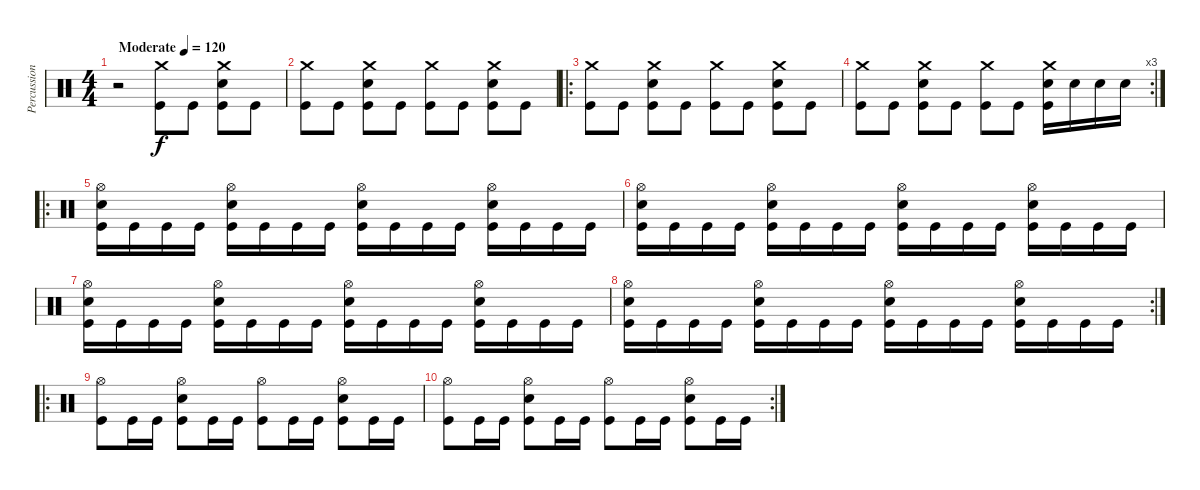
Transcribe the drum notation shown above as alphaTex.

\track ("Percussion" "Percussion") {instrument percussion}
\staff {score}
\articulation defaults
\ts (4 4)
\tempo (120 "Moderate")
\clef neutral
\ks c
r.2{dy f} ("Crash medium (hit)" "Kick (hit)").8 "Kick (hit)".8 ("Crash medium (hit)" "Snare (hit) 2" "Kick (hit)").8 "Kick (hit)".8 |
("Crash medium (hit)" "Kick (hit)").8 "Kick (hit)".8 ("Crash medium (hit)" "Snare (hit) 2" "Kick (hit)").8 "Kick (hit)".8 ("Crash medium (hit)" "Kick (hit)").8 "Kick (hit)".8 ("Crash medium (hit)" "Snare (hit) 2" "Kick (hit)").8 "Kick (hit)".8 |
\ro
("Crash medium (hit)" "Kick (hit)").8 "Kick (hit)".8 ("Crash medium (hit)" "Snare (hit) 2" "Kick (hit)").8 "Kick (hit)".8 ("Crash medium (hit)" "Kick (hit)").8 "Kick (hit)".8 ("Crash medium (hit)" "Snare (hit) 2" "Kick (hit)").8 "Kick (hit)".8 |
\rc 3
("Crash medium (hit)" "Kick (hit)").8 "Kick (hit)".8 ("Crash medium (hit)" "Snare (hit) 2" "Kick (hit)").8 "Kick (hit)".8 ("Crash medium (hit)" "Kick (hit)").8 "Kick (hit)".8 ("Crash medium (hit)" "Snare (hit) 2" "Kick (hit)").16 "Snare (hit) 2".16 "Snare (hit) 2".16 "Snare (hit) 2".16 |
\ro
("Hi-Hat (open)" "Snare (hit) 2" "Kick (hit)").16 "Kick (hit)".16 "Kick (hit)".16 "Kick (hit)".16 ("Hi-Hat (open)" "Snare (hit) 2" "Kick (hit)").16 "Kick (hit)".16 "Kick (hit)".16 "Kick (hit)".16 ("Hi-Hat (open)" "Snare (hit) 2" "Kick (hit)").16 "Kick (hit)".16 "Kick (hit)".16 "Kick (hit)".16 ("Hi-Hat (open)" "Snare (hit) 2" "Kick (hit)").16 "Kick (hit)".16 "Kick (hit)".16 "Kick (hit)".16 |
("Hi-Hat (open)" "Snare (hit) 2" "Kick (hit)").16 "Kick (hit)".16 "Kick (hit)".16 "Kick (hit)".16 ("Hi-Hat (open)" "Snare (hit) 2" "Kick (hit)").16 "Kick (hit)".16 "Kick (hit)".16 "Kick (hit)".16 ("Hi-Hat (open)" "Snare (hit) 2" "Kick (hit)").16 "Kick (hit)".16 "Kick (hit)".16 "Kick (hit)".16 ("Hi-Hat (open)" "Snare (hit) 2" "Kick (hit)").16 "Kick (hit)".16 "Kick (hit)".16 "Kick (hit)".16 |
("Hi-Hat (open)" "Snare (hit) 2" "Kick (hit)").16 "Kick (hit)".16 "Kick (hit)".16 "Kick (hit)".16 ("Hi-Hat (open)" "Snare (hit) 2" "Kick (hit)").16 "Kick (hit)".16 "Kick (hit)".16 "Kick (hit)".16 ("Hi-Hat (open)" "Snare (hit) 2" "Kick (hit)").16 "Kick (hit)".16 "Kick (hit)".16 "Kick (hit)".16 ("Hi-Hat (open)" "Snare (hit) 2" "Kick (hit)").16 "Kick (hit)".16 "Kick (hit)".16 "Kick (hit)".16 |
\rc 2
("Hi-Hat (open)" "Snare (hit) 2" "Kick (hit)").16 "Kick (hit)".16 "Kick (hit)".16 "Kick (hit)".16 ("Hi-Hat (open)" "Snare (hit) 2" "Kick (hit)").16 "Kick (hit)".16 "Kick (hit)".16 "Kick (hit)".16 ("Hi-Hat (open)" "Snare (hit) 2" "Kick (hit)").16 "Kick (hit)".16 "Kick (hit)".16 "Kick (hit)".16 ("Hi-Hat (open)" "Snare (hit) 2" "Kick (hit)").16 "Kick (hit)".16 "Kick (hit)".16 "Kick (hit)".16 |
\ro
("Hi-Hat (open)" "Kick (hit)").8 "Kick (hit)".16 "Kick (hit)".16 ("Hi-Hat (open)" "Snare (hit) 2" "Kick (hit)").8 "Kick (hit)".16 "Kick (hit)".16 ("Hi-Hat (open)" "Kick (hit)").8 "Kick (hit)".16 "Kick (hit)".16 ("Hi-Hat (open)" "Snare (hit) 2" "Kick (hit)").8 "Kick (hit)".16 "Kick (hit)".16 |
\rc 2
("Hi-Hat (open)" "Kick (hit)").8 "Kick (hit)".16 "Kick (hit)".16 ("Hi-Hat (open)" "Snare (hit) 2" "Kick (hit)").8 "Kick (hit)".16 "Kick (hit)".16 ("Hi-Hat (open)" "Kick (hit)").8 "Kick (hit)".16 "Kick (hit)".16 ("Hi-Hat (open)" "Snare (hit) 2" "Kick (hit)").8 "Kick (hit)".16 "Kick (hit)".16
